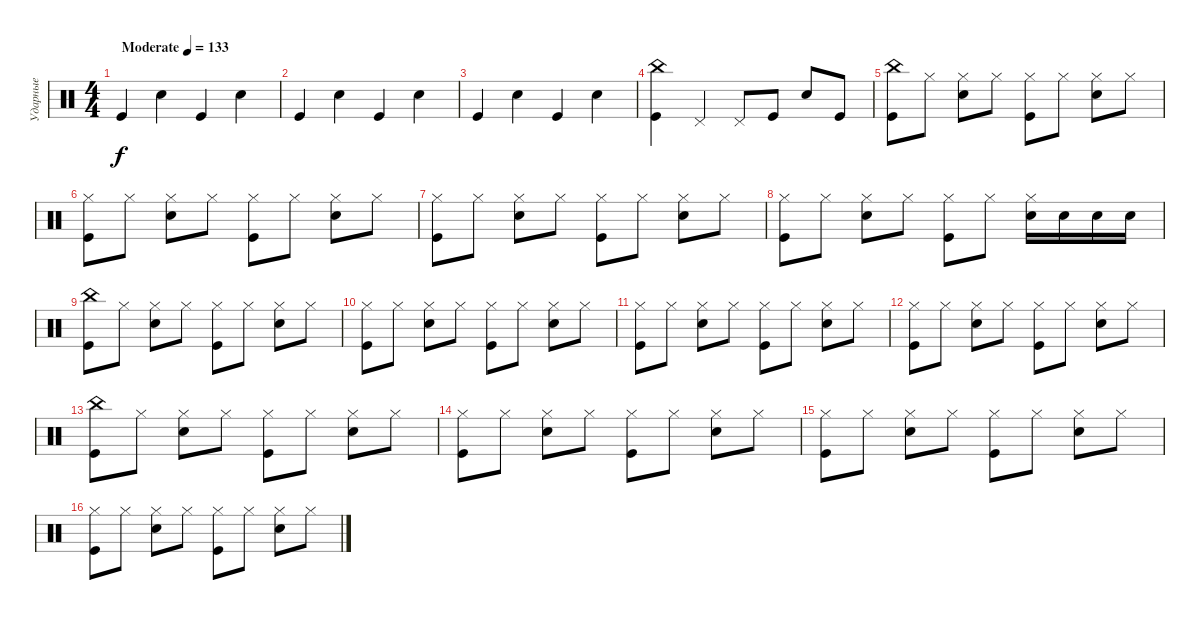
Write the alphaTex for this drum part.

\track ("Ударные" "Ударные") {instrument percussion}
\staff {score}
\articulation defaults
\ts (4 4)
\tempo (133 "Moderate")
\clef neutral
\ks c "Kick (hit)".4{dy f} "Electric Snare (hit)".4 "Kick (hit)".4 "Electric Snare (hit)".4
|
"Kick (hit)".4 "Electric Snare (hit)".4 "Kick (hit)".4 "Electric Snare (hit)".4 |
"Kick (hit)".4 "Electric Snare (hit)".4 "Kick (hit)".4 "Electric Snare (hit)".4 |
("China (hit)" "Kick (hit)").4 "Pedal Hi-Hat (hit)".4 "Pedal Hi-Hat (hit)".8 "Kick (hit)".8 "Electric Snare (hit)".8 "Kick (hit)".8 |
("China (hit)" "Kick (hit)").8 "Hi-Hat (closed)".8 ("Hi-Hat (closed)" "Electric Snare (hit)").8 "Hi-Hat (closed)".8 ("Hi-Hat (closed)" "Kick (hit)").8 "Hi-Hat (closed)".8 ("Hi-Hat (closed)" "Electric Snare (hit)").8 "Hi-Hat (closed)".8 |
("Hi-Hat (closed)" "Kick (hit)").8 "Hi-Hat (closed)".8 ("Hi-Hat (closed)" "Electric Snare (hit)").8 "Hi-Hat (closed)".8 ("Hi-Hat (closed)" "Kick (hit)").8 "Hi-Hat (closed)".8 ("Hi-Hat (closed)" "Electric Snare (hit)").8 "Hi-Hat (closed)".8 |
("Hi-Hat (closed)" "Kick (hit)").8 "Hi-Hat (closed)".8 ("Hi-Hat (closed)" "Electric Snare (hit)").8 "Hi-Hat (closed)".8 ("Hi-Hat (closed)" "Kick (hit)").8 "Hi-Hat (closed)".8 ("Hi-Hat (closed)" "Electric Snare (hit)").8 "Hi-Hat (closed)".8 |
("Hi-Hat (closed)" "Kick (hit)").8 "Hi-Hat (closed)".8 ("Hi-Hat (closed)" "Electric Snare (hit)").8 "Hi-Hat (closed)".8 ("Hi-Hat (closed)" "Kick (hit)").8 "Hi-Hat (closed)".8 ("Hi-Hat (closed)" "Electric Snare (hit)").16 "Electric Snare (hit)".16 "Electric Snare (hit)".16 "Electric Snare (hit)".16 |
("China (hit)" "Kick (hit)").8 "Hi-Hat (closed)".8 ("Hi-Hat (closed)" "Electric Snare (hit)").8 "Hi-Hat (closed)".8 ("Hi-Hat (closed)" "Kick (hit)").8 "Hi-Hat (closed)".8 ("Hi-Hat (closed)" "Electric Snare (hit)").8 "Hi-Hat (closed)".8 |
("Hi-Hat (closed)" "Kick (hit)").8 "Hi-Hat (closed)".8 ("Hi-Hat (closed)" "Electric Snare (hit)").8 "Hi-Hat (closed)".8 ("Hi-Hat (closed)" "Kick (hit)").8 "Hi-Hat (closed)".8 ("Hi-Hat (closed)" "Electric Snare (hit)").8 "Hi-Hat (closed)".8 |
("Hi-Hat (closed)" "Kick (hit)").8 "Hi-Hat (closed)".8 ("Hi-Hat (closed)" "Electric Snare (hit)").8 "Hi-Hat (closed)".8 ("Hi-Hat (closed)" "Kick (hit)").8 "Hi-Hat (closed)".8 ("Hi-Hat (closed)" "Electric Snare (hit)").8 "Hi-Hat (closed)".8 |
("Hi-Hat (closed)" "Kick (hit)").8 "Hi-Hat (closed)".8 ("Hi-Hat (closed)" "Electric Snare (hit)").8 "Hi-Hat (closed)".8 ("Hi-Hat (closed)" "Kick (hit)").8 "Hi-Hat (closed)".8 ("Hi-Hat (closed)" "Electric Snare (hit)").8 "Hi-Hat (closed)".8 |
("China (hit)" "Kick (hit)").8 "Hi-Hat (closed)".8 ("Hi-Hat (closed)" "Electric Snare (hit)").8 "Hi-Hat (closed)".8 ("Hi-Hat (closed)" "Kick (hit)").8 "Hi-Hat (closed)".8 ("Hi-Hat (closed)" "Electric Snare (hit)").8 "Hi-Hat (closed)".8 |
("Hi-Hat (closed)" "Kick (hit)").8 "Hi-Hat (closed)".8 ("Hi-Hat (closed)" "Electric Snare (hit)").8 "Hi-Hat (closed)".8 ("Hi-Hat (closed)" "Kick (hit)").8 "Hi-Hat (closed)".8 ("Hi-Hat (closed)" "Electric Snare (hit)").8 "Hi-Hat (closed)".8 |
("Hi-Hat (closed)" "Kick (hit)").8 "Hi-Hat (closed)".8 ("Hi-Hat (closed)" "Electric Snare (hit)").8 "Hi-Hat (closed)".8 ("Hi-Hat (closed)" "Kick (hit)").8 "Hi-Hat (closed)".8 ("Hi-Hat (closed)" "Electric Snare (hit)").8 "Hi-Hat (closed)".8 |
("Hi-Hat (closed)" "Kick (hit)").8 "Hi-Hat (closed)".8 ("Hi-Hat (closed)" "Electric Snare (hit)").8 "Hi-Hat (closed)".8 ("Hi-Hat (closed)" "Kick (hit)").8 "Hi-Hat (closed)".8 ("Hi-Hat (closed)" "Electric Snare (hit)").8 "Hi-Hat (closed)".8
